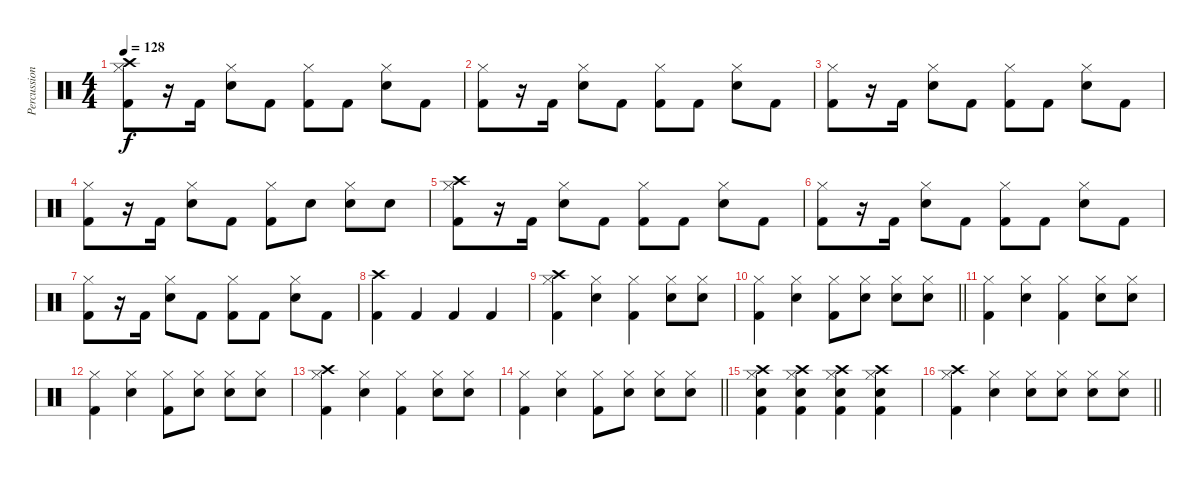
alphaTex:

\track ("Percussion" "Percussion") {instrument percussion}
\staff {score}
\articulation defaults
\ts (4 4)
\tempo 128
\clef neutral
\ks c
("Crash high (hit)" "Hi-Hat (closed)" "Kick (hit) 2").8{dy f} r.16 "Kick (hit) 2".16 ("Hi-Hat (closed)" "Snare (hit) 2").8 "Kick (hit) 2".8 ("Hi-Hat (closed)" "Kick (hit) 2").8 "Kick (hit) 2".8 ("Hi-Hat (closed)" "Snare (hit) 2").8 "Kick (hit) 2".8 |
("Hi-Hat (closed)" "Kick (hit) 2").8 r.16 "Kick (hit) 2".16 ("Hi-Hat (closed)" "Snare (hit) 2").8 "Kick (hit) 2".8 ("Hi-Hat (closed)" "Kick (hit) 2").8 "Kick (hit) 2".8 ("Hi-Hat (closed)" "Snare (hit) 2").8 "Kick (hit) 2".8 |
("Hi-Hat (closed)" "Kick (hit) 2").8 r.16 "Kick (hit) 2".16 ("Hi-Hat (closed)" "Snare (hit) 2").8 "Kick (hit) 2".8 ("Hi-Hat (closed)" "Kick (hit) 2").8 "Kick (hit) 2".8 ("Hi-Hat (closed)" "Snare (hit) 2").8 "Kick (hit) 2".8 |
("Hi-Hat (closed)" "Kick (hit) 2").8 r.16 "Kick (hit) 2".16 ("Hi-Hat (closed)" "Snare (hit) 2").8 "Kick (hit) 2".8 ("Hi-Hat (closed)" "Kick (hit) 2").8 "Snare (hit) 2".8 ("Hi-Hat (closed)" "Snare (hit) 2").8 "Snare (hit) 2".8 |
("Crash high (hit)" "Hi-Hat (closed)" "Kick (hit) 2").8 r.16 "Kick (hit) 2".16 ("Hi-Hat (closed)" "Snare (hit) 2").8 "Kick (hit) 2".8 ("Hi-Hat (closed)" "Kick (hit) 2").8 "Kick (hit) 2".8 ("Hi-Hat (closed)" "Snare (hit) 2").8 "Kick (hit) 2".8 |
("Hi-Hat (closed)" "Kick (hit) 2").8 r.16 "Kick (hit) 2".16 ("Hi-Hat (closed)" "Snare (hit) 2").8 "Kick (hit) 2".8 ("Hi-Hat (closed)" "Kick (hit) 2").8 "Kick (hit) 2".8 ("Hi-Hat (closed)" "Snare (hit) 2").8 "Kick (hit) 2".8 |
("Hi-Hat (closed)" "Kick (hit) 2").8 r.16 "Kick (hit) 2".16 ("Hi-Hat (closed)" "Snare (hit) 2").8 "Kick (hit) 2".8 ("Hi-Hat (closed)" "Kick (hit) 2").8 "Kick (hit) 2".8 ("Hi-Hat (closed)" "Snare (hit) 2").8 "Kick (hit) 2".8 |
("Crash high (hit)" "Kick (hit) 2").4 "Kick (hit) 2".4 "Kick (hit) 2".4 "Kick (hit) 2".4 |
("Crash high (hit)" "Hi-Hat (closed)" "Kick (hit) 2").4 ("Hi-Hat (closed)" "Snare (hit) 2").4 ("Hi-Hat (closed)" "Kick (hit) 2").4 ("Hi-Hat (closed)" "Snare (hit) 2").8 ("Hi-Hat (closed)" "Snare (hit) 2").8 |
\barLineRight lightlight
("Hi-Hat (closed)" "Kick (hit) 2").4 ("Hi-Hat (closed)" "Snare (hit) 2").4 ("Hi-Hat (closed)" "Kick (hit) 2").8 ("Hi-Hat (closed)" "Snare (hit) 2").8 ("Hi-Hat (closed)" "Snare (hit) 2").8 ("Hi-Hat (closed)" "Snare (hit) 2").8 |
("Hi-Hat (closed)" "Kick (hit) 2").4 ("Hi-Hat (closed)" "Snare (hit) 2").4 ("Hi-Hat (closed)" "Kick (hit) 2").4 ("Hi-Hat (closed)" "Snare (hit) 2").8 ("Hi-Hat (closed)" "Snare (hit) 2").8 |
("Hi-Hat (closed)" "Kick (hit) 2").4 ("Hi-Hat (closed)" "Snare (hit) 2").4 ("Hi-Hat (closed)" "Kick (hit) 2").8 ("Hi-Hat (closed)" "Snare (hit) 2").8 ("Hi-Hat (closed)" "Snare (hit) 2").8 ("Hi-Hat (closed)" "Snare (hit) 2").8 |
("Crash high (hit)" "Hi-Hat (closed)" "Kick (hit) 2").4 ("Hi-Hat (closed)" "Snare (hit) 2").4 ("Hi-Hat (closed)" "Kick (hit) 2").4 ("Hi-Hat (closed)" "Snare (hit) 2").8 ("Hi-Hat (closed)" "Snare (hit) 2").8 |
\barLineRight lightlight
("Hi-Hat (closed)" "Kick (hit) 2").4 ("Hi-Hat (closed)" "Snare (hit) 2").4 ("Hi-Hat (closed)" "Kick (hit) 2").8 ("Hi-Hat (closed)" "Snare (hit) 2").8 ("Hi-Hat (closed)" "Snare (hit) 2").8 ("Hi-Hat (closed)" "Snare (hit) 2").8 |
("Crash high (hit)" "Hi-Hat (closed)" "Kick (hit) 2" "Snare (hit) 2").4 ("Crash high (hit)" "Hi-Hat (closed)" "Kick (hit) 2" "Snare (hit) 2").4 ("Crash high (hit)" "Hi-Hat (closed)" "Kick (hit) 2" "Snare (hit) 2").4 ("Crash high (hit)" "Hi-Hat (closed)" "Kick (hit) 2" "Snare (hit) 2").4 |
\barLineRight lightlight
("Crash high (hit)" "Hi-Hat (closed)" "Kick (hit) 2").4 ("Hi-Hat (closed)" "Snare (hit) 2").4 ("Hi-Hat (closed)" "Snare (hit) 2").8 ("Hi-Hat (closed)" "Snare (hit) 2").8 ("Hi-Hat (closed)" "Snare (hit) 2").8 ("Hi-Hat (closed)" "Snare (hit) 2").8
